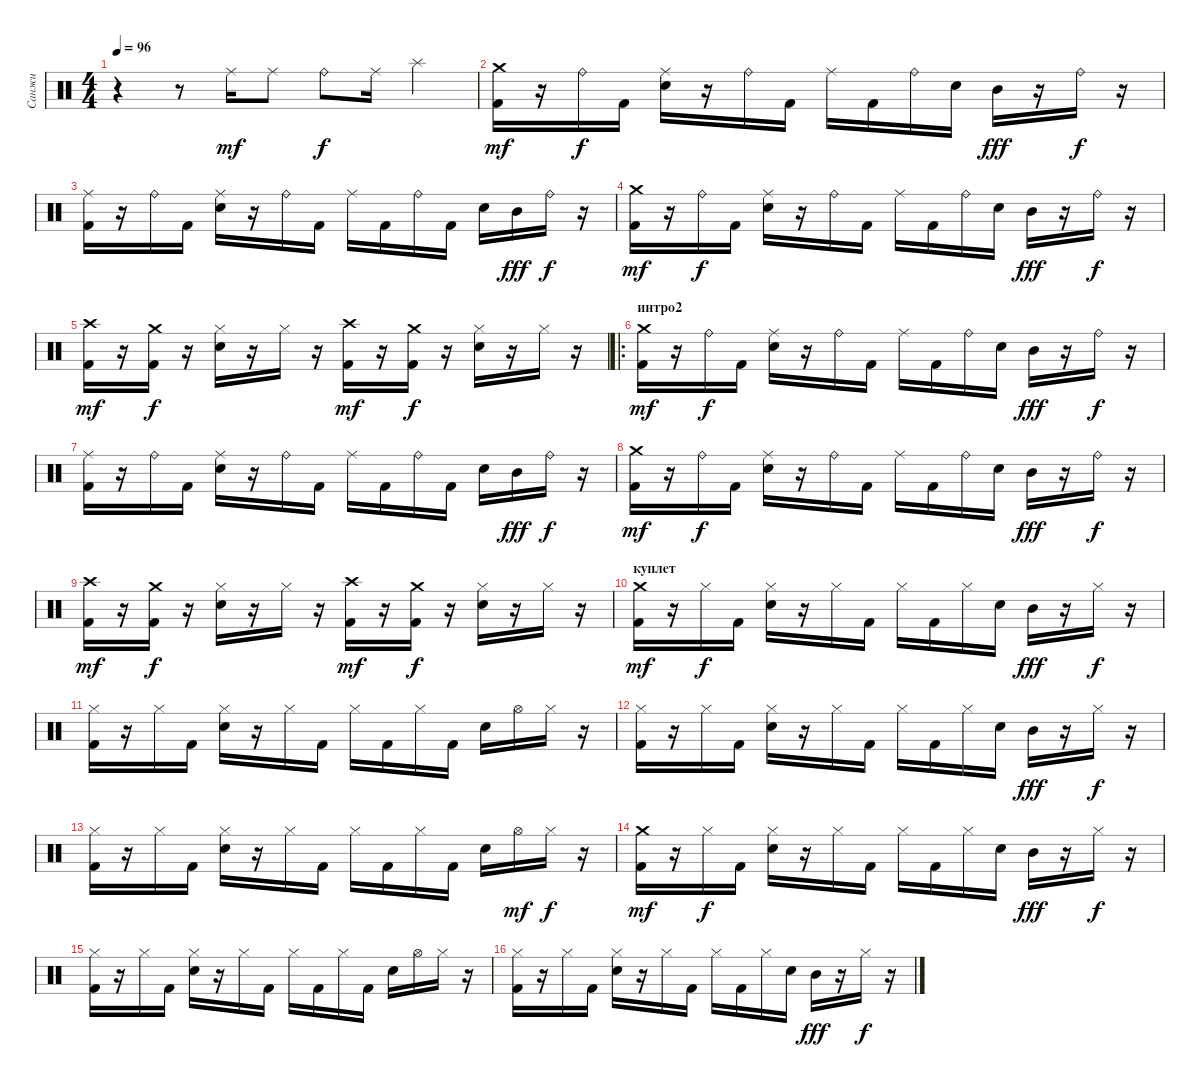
\track ("Санжи" "Санжи") {instrument percussion}
\staff {score}
\articulation defaults
\ts (4 4)
\tempo 96
\clef neutral
\ks c
r.4{dy mf} r.8 "Ride (middle)".16 "Ride (middle)".8 "Ride (bell)".8{dy f} "Ride (middle)".16 "Splash (hit)".4 |
("Crash medium (hit)" "Kick (hit) 2").16{dy mf} r.16 "Ride (bell)".16{dy f} "Kick (hit) 2".16 ("Ride (middle)" "Snare (hit) 2").16 r.16 "Ride (bell)".16 "Kick (hit) 2".16 "Ride (middle)".16 "Kick (hit) 2".16 "Ride (bell)".16 "Snare (hit) 2".16 "Mid Tom (hit)".16{dy fff} r.16 "Ride (bell)".16{dy f} r.16 |
("Ride (middle)" "Kick (hit) 2").16 r.16 "Ride (bell)".16 "Kick (hit) 2".16 ("Ride (middle)" "Snare (hit) 2").16 r.16 "Ride (bell)".16 "Kick (hit) 2".16 "Ride (middle)".16 "Kick (hit) 2".16 "Ride (bell)".16 "Kick (hit) 2".16 "Snare (hit) 2".16 "Mid Tom (hit)".16{dy fff} "Ride (bell)".16{dy f} r.16 |
("Crash medium (hit)" "Kick (hit) 2").16{dy mf} r.16 "Ride (bell)".16{dy f} "Kick (hit) 2".16 ("Ride (middle)" "Snare (hit) 2").16 r.16 "Ride (bell)".16 "Kick (hit) 2".16 "Ride (middle)".16 "Kick (hit) 2".16 "Ride (bell)".16 "Snare (hit) 2".16 "Mid Tom (hit)".16{dy fff} r.16 "Ride (bell)".16{dy f} r.16 |
("Crash high (hit)" "Kick (hit) 2").16{dy mf} r.16 ("Crash medium (hit)" "Kick (hit) 2").16{dy f} r.16 ("Hi-Hat (closed)" "Snare (hit) 2").16 r.16 "Hi-Hat (closed)".16 r.16 ("Crash high (hit)" "Kick (hit) 2").16{dy mf} r.16 ("Crash medium (hit)" "Kick (hit) 2").16{dy f} r.16 ("Hi-Hat (closed)" "Snare (hit) 2").16 r.16 "Hi-Hat (closed)".16 r.16 |
\ro
\section ("" "интро2")
("Crash medium (hit)" "Kick (hit) 2").16{dy mf} r.16 "Ride (bell)".16{dy f} "Kick (hit) 2".16 ("Ride (middle)" "Snare (hit) 2").16 r.16 "Ride (bell)".16 "Kick (hit) 2".16 "Ride (middle)".16 "Kick (hit) 2".16 "Ride (bell)".16 "Snare (hit) 2".16 "Mid Tom (hit)".16{dy fff} r.16 "Ride (bell)".16{dy f} r.16 |
("Ride (middle)" "Kick (hit) 2").16 r.16 "Ride (bell)".16 "Kick (hit) 2".16 ("Ride (middle)" "Snare (hit) 2").16 r.16 "Ride (bell)".16 "Kick (hit) 2".16 "Ride (middle)".16 "Kick (hit) 2".16 "Ride (bell)".16 "Kick (hit) 2".16 "Snare (hit) 2".16 "Mid Tom (hit)".16{dy fff} "Ride (bell)".16{dy f} r.16 |
("Crash medium (hit)" "Kick (hit) 2").16{dy mf} r.16 "Ride (bell)".16{dy f} "Kick (hit) 2".16 ("Ride (middle)" "Snare (hit) 2").16 r.16 "Ride (bell)".16 "Kick (hit) 2".16 "Ride (middle)".16 "Kick (hit) 2".16 "Ride (bell)".16 "Snare (hit) 2".16 "Mid Tom (hit)".16{dy fff} r.16 "Ride (bell)".16{dy f} r.16 |
("Crash high (hit)" "Kick (hit) 2").16{dy mf} r.16 ("Crash medium (hit)" "Kick (hit) 2").16{dy f} r.16 ("Hi-Hat (closed)" "Snare (hit) 2").16 r.16 "Hi-Hat (closed)".16 r.16 ("Crash high (hit)" "Kick (hit) 2").16{dy mf} r.16 ("Crash medium (hit)" "Kick (hit) 2").16{dy f} r.16 ("Hi-Hat (closed)" "Snare (hit) 2").16 r.16 "Hi-Hat (closed)".16 r.16 |
\section ("" "куплет")
("Crash medium (hit)" "Kick (hit) 2").16{dy mf} r.16 "Hi-Hat (closed)".16{dy f} "Kick (hit) 2".16 ("Hi-Hat (closed)" "Snare (hit) 2").16 r.16 "Hi-Hat (closed)".16 "Kick (hit) 2".16 "Hi-Hat (closed)".16 "Kick (hit) 2".16 "Hi-Hat (closed)".16 "Snare (hit) 2".16 "Mid Tom (hit)".16{dy fff} r.16 "Hi-Hat (closed)".16{dy f} r.16 |
("Hi-Hat (closed)" "Kick (hit) 2").16 r.16 "Hi-Hat (closed)".16 "Kick (hit) 2".16 ("Hi-Hat (closed)" "Snare (hit) 2").16 r.16 "Hi-Hat (closed)".16 "Kick (hit) 2".16 "Hi-Hat (closed)".16 "Kick (hit) 2".16 "Hi-Hat (closed)".16 "Kick (hit) 2".16 "Snare (hit) 2".16 "Hi-Hat (open)".16 "Hi-Hat (closed)".16 r.16 |
("Hi-Hat (closed)" "Kick (hit) 2").16 r.16 "Hi-Hat (closed)".16 "Kick (hit) 2".16 ("Hi-Hat (closed)" "Snare (hit) 2").16 r.16 "Hi-Hat (closed)".16 "Kick (hit) 2".16 "Hi-Hat (closed)".16 "Kick (hit) 2".16 "Hi-Hat (closed)".16 "Snare (hit) 2".16 "Mid Tom (hit)".16{dy fff} r.16 "Hi-Hat (closed)".16{dy f} r.16 |
("Hi-Hat (closed)" "Kick (hit) 2").16 r.16 "Hi-Hat (closed)".16 "Kick (hit) 2".16 ("Hi-Hat (closed)" "Snare (hit) 2").16 r.16 "Hi-Hat (closed)".16 "Kick (hit) 2".16 "Hi-Hat (closed)".16 "Kick (hit) 2".16 "Hi-Hat (closed)".16 "Kick (hit) 2".16 "Snare (hit) 2".16 "Hi-Hat (open)".16{dy mf} "Hi-Hat (closed)".16{dy f} r.16 |
("Crash medium (hit)" "Kick (hit) 2").16{dy mf} r.16 "Hi-Hat (closed)".16{dy f} "Kick (hit) 2".16 ("Hi-Hat (closed)" "Snare (hit) 2").16 r.16 "Hi-Hat (closed)".16 "Kick (hit) 2".16 "Hi-Hat (closed)".16 "Kick (hit) 2".16 "Hi-Hat (closed)".16 "Snare (hit) 2".16 "Mid Tom (hit)".16{dy fff} r.16 "Hi-Hat (closed)".16{dy f} r.16 |
("Hi-Hat (closed)" "Kick (hit) 2").16 r.16 "Hi-Hat (closed)".16 "Kick (hit) 2".16 ("Hi-Hat (closed)" "Snare (hit) 2").16 r.16 "Hi-Hat (closed)".16 "Kick (hit) 2".16 "Hi-Hat (closed)".16 "Kick (hit) 2".16 "Hi-Hat (closed)".16 "Kick (hit) 2".16 "Snare (hit) 2".16 "Hi-Hat (open)".16 "Hi-Hat (closed)".16 r.16 |
("Hi-Hat (closed)" "Kick (hit) 2").16 r.16 "Hi-Hat (closed)".16 "Kick (hit) 2".16 ("Hi-Hat (closed)" "Snare (hit) 2").16 r.16 "Hi-Hat (closed)".16 "Kick (hit) 2".16 "Hi-Hat (closed)".16 "Kick (hit) 2".16 "Hi-Hat (closed)".16 "Snare (hit) 2".16 "Mid Tom (hit)".16{dy fff} r.16 "Hi-Hat (closed)".16{dy f} r.16
